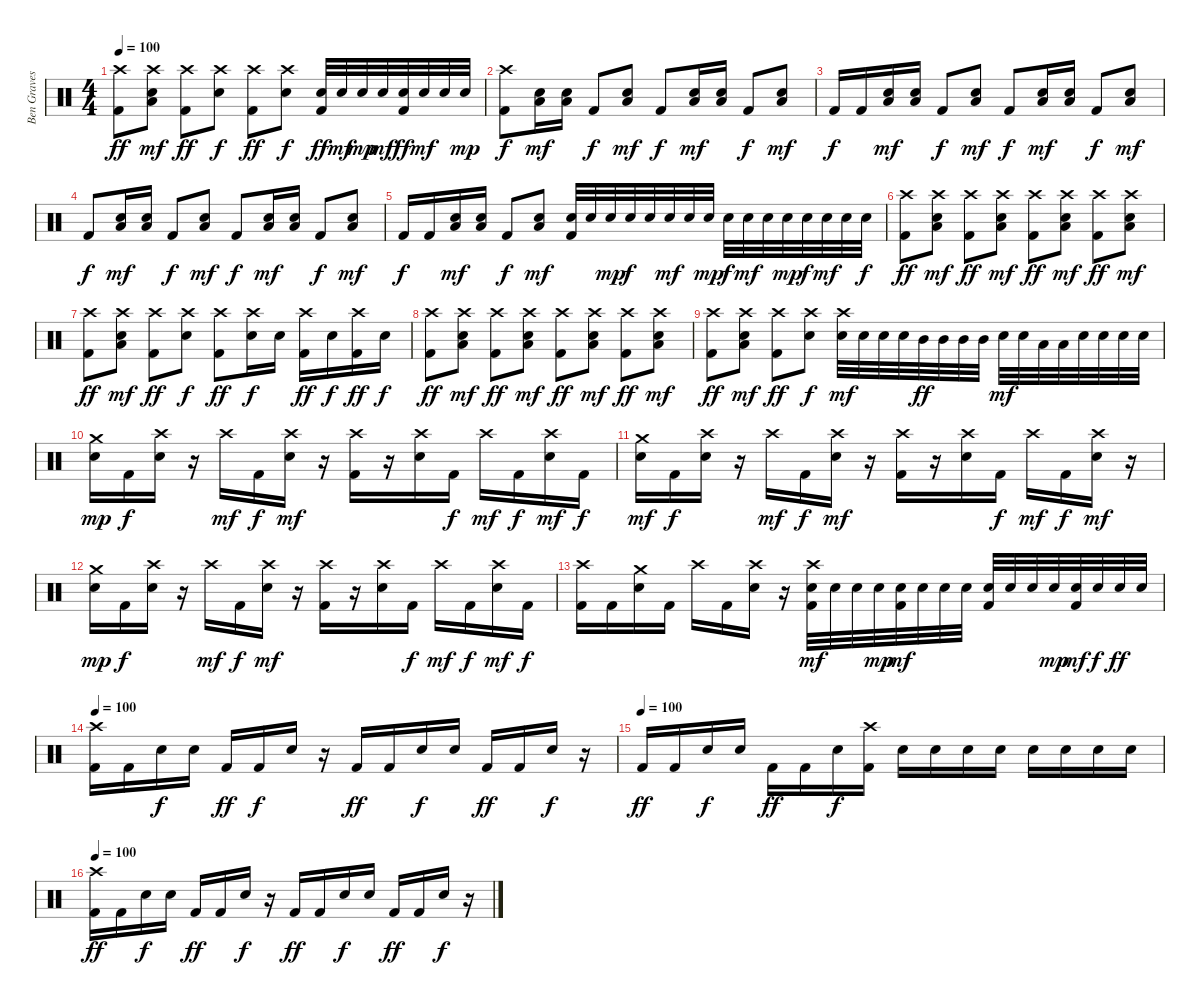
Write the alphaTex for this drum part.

\track ("Ben Graves (theghoul)" "Ben Graves") {instrument percussion}
\staff {score}
\articulation defaults
\ts (4 4)
\tempo 100
\clef neutral
\ks c
("Crash high (hit)" "Kick (hit) 2").8{dy ff} ("Crash high (hit)" "Snare (hit) 2" "Low Tom (hit)").8{dy mf} ("Crash high (hit)" "Kick (hit) 2").8{dy ff} ("Crash high (hit)" "Snare (hit) 2").8{dy f} ("Crash high (hit)" "Kick (hit) 2").8{dy ff} ("Crash high (hit)" "Snare (hit) 2").8{dy f} ("Snare (hit) 2" "Kick (hit) 2").32{dy ff} "Snare (hit) 2".32{dy mf} "Snare (hit) 2".32{dy mp} "Snare (hit) 2".32{dy mf} ("Snare (hit) 2" "Kick (hit) 2").32{dy ff} "Snare (hit) 2".32{dy mf} "Snare (hit) 2".32 "Snare (hit) 2".32{dy mp} |
("Crash high (hit)" "Kick (hit) 2").8{dy f} ("Snare (hit) 2" "Low Tom (hit)").16{dy mf} ("Snare (hit) 2" "Low Tom (hit)").16 "Kick (hit) 2".8{dy f} ("Snare (hit) 2" "Low Tom (hit)").8{dy mf} "Kick (hit) 2".8{dy f} ("Snare (hit) 2" "Low Tom (hit)").16{dy mf} ("Snare (hit) 2" "Low Tom (hit)").16 "Kick (hit) 2".8{dy f} ("Snare (hit) 2" "Low Tom (hit)").8{dy mf} |
"Kick (hit) 2".16{dy f} "Kick (hit) 2".16 ("Snare (hit) 2" "Low Tom (hit)").16{dy mf} ("Snare (hit) 2" "Low Tom (hit)").16 "Kick (hit) 2".8{dy f} ("Snare (hit) 2" "Low Tom (hit)").8{dy mf} "Kick (hit) 2".8{dy f} ("Snare (hit) 2" "Low Tom (hit)").16{dy mf} ("Snare (hit) 2" "Low Tom (hit)").16 "Kick (hit) 2".8{dy f} ("Snare (hit) 2" "Low Tom (hit)").8{dy mf} |
"Kick (hit) 2".8{dy f} ("Snare (hit) 2" "Low Tom (hit)").16{dy mf} ("Snare (hit) 2" "Low Tom (hit)").16 "Kick (hit) 2".8{dy f} ("Snare (hit) 2" "Low Tom (hit)").8{dy mf} "Kick (hit) 2".8{dy f} ("Snare (hit) 2" "Low Tom (hit)").16{dy mf} ("Snare (hit) 2" "Low Tom (hit)").16 "Kick (hit) 2".8{dy f} ("Snare (hit) 2" "Low Tom (hit)").8{dy mf} |
"Kick (hit) 2".16{dy f} "Kick (hit) 2".16 ("Snare (hit) 2" "Low Tom (hit)").16{dy mf} ("Snare (hit) 2" "Low Tom (hit)").16 "Kick (hit) 2".8{dy f} ("Snare (hit) 2" "Low Tom (hit)").8{dy mf} ("Snare (hit) 2" "Kick (hit) 2").32 "Snare (hit) 2".32 "Snare (hit) 2".32{dy mp} "Snare (hit) 2".32{dy f} "Snare (hit) 2".32 "Snare (hit) 2".32{dy mf} "Snare (hit) 2".32 "Snare (hit) 2".32{dy mp} "Snare (hit) 2".32{dy f} "Snare (hit) 2".32{dy mf} "Snare (hit) 2".32 "Snare (hit) 2".32{dy mp} "Snare (hit) 2".32{dy f} "Snare (hit) 2".32{dy mf} "Snare (hit) 2".32 "Snare (hit) 2".32{dy f} |
("Crash high (hit)" "Kick (hit) 2").8{dy ff} ("Crash high (hit)" "Snare (hit) 2" "Low Tom (hit)").8{dy mf} ("Crash high (hit)" "Kick (hit) 2").8{dy ff} ("Crash high (hit)" "Snare (hit) 2" "Low Tom (hit)").8{dy mf} ("Crash high (hit)" "Kick (hit) 2").8{dy ff} ("Crash high (hit)" "Snare (hit) 2" "Low Tom (hit)").8{dy mf} ("Crash high (hit)" "Kick (hit) 2").8{dy ff} ("Crash high (hit)" "Snare (hit) 2" "Low Tom (hit)").8{dy mf} |
("Crash high (hit)" "Kick (hit) 2").8{dy ff} ("Crash high (hit)" "Snare (hit) 2" "Low Tom (hit)").8{dy mf} ("Crash high (hit)" "Kick (hit) 2").8{dy ff} ("Crash high (hit)" "Snare (hit) 2").8{dy f} ("Crash high (hit)" "Kick (hit) 2").8{dy ff} ("Crash high (hit)" "Snare (hit) 2").16{dy f} "Snare (hit) 2".16 ("Crash high (hit)" "Kick (hit) 2").16{dy ff} "Snare (hit) 2".16{dy f} ("Crash high (hit)" "Kick (hit) 2").16{dy ff} "Snare (hit) 2".16{dy f} |
("Crash high (hit)" "Kick (hit) 2").8{dy ff} ("Crash high (hit)" "Snare (hit) 2" "Low Tom (hit)").8{dy mf} ("Crash high (hit)" "Kick (hit) 2").8{dy ff} ("Crash high (hit)" "Snare (hit) 2" "Low Tom (hit)").8{dy mf} ("Crash high (hit)" "Kick (hit) 2").8{dy ff} ("Crash high (hit)" "Snare (hit) 2" "Low Tom (hit)").8{dy mf} ("Crash high (hit)" "Kick (hit) 2").8{dy ff} ("Crash high (hit)" "Snare (hit) 2" "Low Tom (hit)").8{dy mf} |
("Crash high (hit)" "Kick (hit) 2").8{dy ff} ("Crash high (hit)" "Snare (hit) 2" "Low Tom (hit)").8{dy mf} ("Crash high (hit)" "Kick (hit) 2").8{dy ff} ("Crash high (hit)" "Snare (hit) 2").8{dy f} ("Crash high (hit)" "Snare (hit) 2").32{dy mf} "Snare (hit) 2".32 "Snare (hit) 2".32 "Snare (hit) 2".32 "Mid Tom (hit)".32{dy ff} "Mid Tom (hit)".32 "Mid Tom (hit)".32 "Mid Tom (hit)".32 "Snare (hit) 2".32{dy mf} "Snare (hit) 2".32 "Low Tom (hit)".32 "Low Tom (hit)".32 "Snare (hit) 2".32 "Snare (hit) 2".32 "Snare (hit) 2".32 "Snare (hit) 2".32 |
("Crash medium (hit)" "Snare (hit) 2").16{dy mp} "Kick (hit) 2".16{dy f} ("Crash high (hit)" "Snare (hit) 2").16 r.16 "Crash high (hit)".16{dy mf} "Kick (hit) 2".16{dy f} ("Crash high (hit)" "Snare (hit) 2").16{dy mf} r.16 ("Crash high (hit)" "Kick (hit) 2").16 r.16 ("Crash high (hit)" "Snare (hit) 2").16 "Kick (hit) 2".16{dy f} "Crash high (hit)".16{dy mf} "Kick (hit) 2".16{dy f} ("Crash high (hit)" "Snare (hit) 2").16{dy mf} "Kick (hit) 2".16{dy f} |
("Crash medium (hit)" "Snare (hit) 2").16{dy mf} "Kick (hit) 2".16{dy f} ("Crash high (hit)" "Snare (hit) 2").16 r.16 "Crash high (hit)".16{dy mf} "Kick (hit) 2".16{dy f} ("Crash high (hit)" "Snare (hit) 2").16{dy mf} r.16 ("Crash high (hit)" "Kick (hit) 2").16 r.16 ("Crash high (hit)" "Snare (hit) 2").16 "Kick (hit) 2".16{dy f} "Crash high (hit)".16{dy mf} "Kick (hit) 2".16{dy f} ("Crash high (hit)" "Snare (hit) 2").16{dy mf} r.16 |
("Crash medium (hit)" "Snare (hit) 2").16{dy mp} "Kick (hit) 2".16{dy f} ("Crash high (hit)" "Snare (hit) 2").16 r.16 "Crash high (hit)".16{dy mf} "Kick (hit) 2".16{dy f} ("Crash high (hit)" "Snare (hit) 2").16{dy mf} r.16 ("Crash high (hit)" "Kick (hit) 2").16 r.16 ("Crash high (hit)" "Snare (hit) 2").16 "Kick (hit) 2".16{dy f} "Crash high (hit)".16{dy mf} "Kick (hit) 2".16{dy f} ("Crash high (hit)" "Snare (hit) 2").16{dy mf} "Kick (hit) 2".16{dy f} |
("Crash high (hit)" "Kick (hit) 2").16 "Kick (hit) 2".16 ("Crash medium (hit)" "Snare (hit) 2").16 "Kick (hit) 2".16 "Crash high (hit)".16 "Kick (hit) 2".16 ("Crash high (hit)" "Snare (hit) 2").16 r.16 ("Crash high (hit)" "Snare (hit) 2" "Kick (hit) 2").32{dy mf} "Snare (hit) 2".32 "Snare (hit) 2".32 "Snare (hit) 2".32{dy mp} ("Snare (hit) 2" "Kick (hit) 2").32{dy mf} "Snare (hit) 2".32 "Snare (hit) 2".32 "Snare (hit) 2".32 ("Snare (hit) 2" "Kick (hit) 2").32 "Snare (hit) 2".32 "Snare (hit) 2".32 "Snare (hit) 2".32{dy mp} ("Snare (hit) 2" "Kick (hit) 2").32{dy mf} "Snare (hit) 2".32{dy f} "Snare (hit) 2".32{dy ff} "Snare (hit) 2".32 |
\tempo 100
("Crash high (hit)" "Kick (hit) 2").16 "Kick (hit) 2".16 "Snare (hit) 2".16{dy f} "Snare (hit) 2".16 "Kick (hit) 2".16{dy ff} "Kick (hit) 2".16{dy f} "Snare (hit) 2".16 r.16 "Kick (hit) 2".16{dy ff} "Kick (hit) 2".16 "Snare (hit) 2".16{dy f} "Snare (hit) 2".16 "Kick (hit) 2".16{dy ff} "Kick (hit) 2".16 "Snare (hit) 2".16{dy f} r.16 |
\tempo (100)
"Kick (hit) 2".16{dy ff} "Kick (hit) 2".16 "Snare (hit) 2".16{dy f} "Snare (hit) 2".16 "Kick (hit) 2".16{dy ff} "Kick (hit) 2".16 "Snare (hit) 2".16{dy f} ("Crash high (hit)" "Kick (hit) 2").16 "Snare (hit) 2".16 "Snare (hit) 2".16 "Snare (hit) 2".16 "Snare (hit) 2".16 "Snare (hit) 2".16 "Snare (hit) 2".16 "Snare (hit) 2".16 "Snare (hit) 2".16 |
\tempo 100
("Crash high (hit)" "Kick (hit) 2").16{dy ff} "Kick (hit) 2".16 "Snare (hit) 2".16{dy f} "Snare (hit) 2".16 "Kick (hit) 2".16{dy ff} "Kick (hit) 2".16 "Snare (hit) 2".16{dy f} r.16 "Kick (hit) 2".16{dy ff} "Kick (hit) 2".16 "Snare (hit) 2".16{dy f} "Snare (hit) 2".16 "Kick (hit) 2".16{dy ff} "Kick (hit) 2".16 "Snare (hit) 2".16{dy f} r.16
